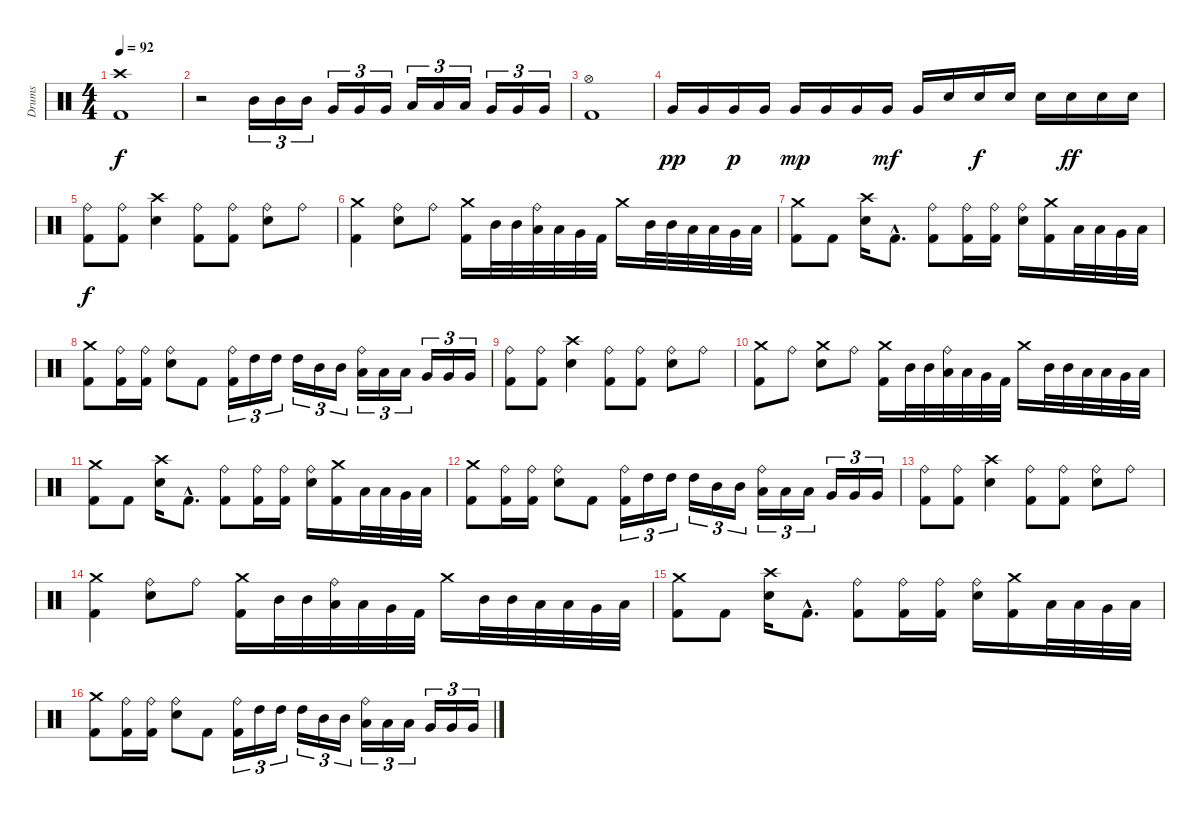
\track ("Drums" "Drums") {instrument percussion}
\staff {score}
\articulation defaults
\ts (4 4)
\tempo 92
\clef neutral
\ks c
("Crash high (hit)" "Kick (hit) 2").1{dy f} |
r.2 "Mid Tom (hit)".16{tu (3 2)} "Mid Tom (hit)".16{tu (3 2)} "Mid Tom (hit)".16{tu (3 2)} "Very Low Tom (hit)".16{tu (3 2)} "Very Low Tom (hit)".16{tu (3 2)} "Very Low Tom (hit)".16{tu (3 2)} "Low Tom (hit)".16{tu (3 2)} "Low Tom (hit)".16{tu (3 2)} "Low Tom (hit)".16{tu (3 2)} "Very Low Tom (hit)".16{tu (3 2)} "Very Low Tom (hit)".16{tu (3 2)} "Very Low Tom (hit)".16{tu (3 2)} |
("Hi-Hat (open)" "Kick (hit) 2").1 |
"Very Low Tom (hit)".16{dy pp} "Very Low Tom (hit)".16 "Very Low Tom (hit)".16{dy p} "Very Low Tom (hit)".16 "Very Low Tom (hit)".16{dy mp} "Very Low Tom (hit)".16 "Very Low Tom (hit)".16 "Very Low Tom (hit)".16{dy mf} "Very Low Tom (hit)".16 "Electric Snare (hit)".16 "Electric Snare (hit)".16{dy f} "Electric Snare (hit)".16 "Electric Snare (hit)".16 "Electric Snare (hit)".16{dy ff} "Electric Snare (hit)".16 "Electric Snare (hit)".16 |
("Ride (bell)" "Kick (hit) 2").8{dy f} ("Ride (bell)" "Kick (hit) 2").8 ("Crash high (hit)" "Electric Snare (hit)").4 ("Ride (bell)" "Kick (hit) 2").8 ("Ride (bell)" "Kick (hit) 2").8 ("Ride (bell)" "Electric Snare (hit)").8 "Ride (bell)".8 |
("Crash medium (hit)" "Kick (hit) 2").4 ("Ride (bell)" "Electric Snare (hit)").8 "Ride (bell)".8 ("Crash medium (hit)" "Kick (hit) 2").16 "Mid Tom (hit)".32 "Mid Tom (hit)".32 ("Ride (bell)" "Low Tom (hit)").32 "Low Tom (hit)".32 "Very Low Tom (hit)".32 "Kick (hit) 2".32 "Crash medium (hit)".16 "Mid Tom (hit)".32 "Mid Tom (hit)".32 "Low Tom (hit)".32 "Low Tom (hit)".32 "Very Low Tom (hit)".32 "Low Floor Tom (hit)".32 |
("Crash medium (hit)" "Kick (hit) 2").8 "Kick (hit) 2".8 ("Crash high (hit)" "Electric Snare (hit)").16 "Kick (hit) 2"{hac}.8{d} ("Ride (bell)" "Kick (hit) 2").8 ("Ride (bell)" "Kick (hit) 2").16 ("Ride (bell)" "Kick (hit) 2").16 ("Ride (bell)" "Electric Snare (hit)").16 ("Crash medium (hit)" "Kick (hit) 2").16 "Low Tom (hit)".32 "Low Tom (hit)".32 "Very Low Tom (hit)".32 "Low Floor Tom (hit)".32 |
("Crash medium (hit)" "Kick (hit) 2").8 ("Ride (bell)" "Kick (hit) 2").16 ("Ride (bell)" "Kick (hit) 2").16 ("Ride (bell)" "Electric Snare (hit)").8 "Kick (hit) 2".8 ("Ride (bell)" "Kick (hit) 2").16{tu (3 2)} "High Tom (hit)".16{tu (3 2)} "High Tom (hit)".16{tu (3 2)} "High Tom (hit)".16{tu (3 2)} "Mid Tom (hit)".16{tu (3 2)} "Mid Tom (hit)".16{tu (3 2)} ("Ride (bell)" "Low Tom (hit)").16{tu (3 2)} "Low Tom (hit)".16{tu (3 2)} "Low Tom (hit)".16{tu (3 2)} "Very Low Tom (hit)".16{tu (3 2)} "Very Low Tom (hit)".16{tu (3 2)} "Very Low Tom (hit)".16{tu (3 2)} |
("Ride (bell)" "Kick (hit) 2").8 ("Ride (bell)" "Kick (hit) 2").8 ("Crash high (hit)" "Electric Snare (hit)").4 ("Ride (bell)" "Kick (hit) 2").8 ("Ride (bell)" "Kick (hit) 2").8 ("Ride (bell)" "Electric Snare (hit)").8 "Ride (bell)".8 |
("Crash medium (hit)" "Kick (hit) 2").8 "Ride (bell)".8 ("Crash medium (hit)" "Electric Snare (hit)").8 "Ride (bell)".8 ("Crash medium (hit)" "Kick (hit) 2").16 "Mid Tom (hit)".32 "Mid Tom (hit)".32 ("Ride (bell)" "Low Tom (hit)").32 "Low Tom (hit)".32 "Very Low Tom (hit)".32 "Kick (hit) 2".32 "Crash medium (hit)".16 "Mid Tom (hit)".32 "Mid Tom (hit)".32 "Low Tom (hit)".32 "Low Tom (hit)".32 "Very Low Tom (hit)".32 "Low Floor Tom (hit)".32 |
("Crash medium (hit)" "Kick (hit) 2").8 "Kick (hit) 2".8 ("Crash high (hit)" "Electric Snare (hit)").16 "Kick (hit) 2"{hac}.8{d} ("Ride (bell)" "Kick (hit) 2").8 ("Ride (bell)" "Kick (hit) 2").16 ("Ride (bell)" "Kick (hit) 2").16 ("Ride (bell)" "Electric Snare (hit)").16 ("Crash medium (hit)" "Kick (hit) 2").16 "Low Tom (hit)".32 "Low Tom (hit)".32 "Very Low Tom (hit)".32 "Low Floor Tom (hit)".32 |
("Crash medium (hit)" "Kick (hit) 2").8 ("Ride (bell)" "Kick (hit) 2").16 ("Ride (bell)" "Kick (hit) 2").16 ("Ride (bell)" "Electric Snare (hit)").8 "Kick (hit) 2".8 ("Ride (bell)" "Kick (hit) 2").16{tu (3 2)} "High Tom (hit)".16{tu (3 2)} "High Tom (hit)".16{tu (3 2)} "High Tom (hit)".16{tu (3 2)} "Mid Tom (hit)".16{tu (3 2)} "Mid Tom (hit)".16{tu (3 2)} ("Ride (bell)" "Low Tom (hit)").16{tu (3 2)} "Low Tom (hit)".16{tu (3 2)} "Low Tom (hit)".16{tu (3 2)} "Very Low Tom (hit)".16{tu (3 2)} "Very Low Tom (hit)".16{tu (3 2)} "Very Low Tom (hit)".16{tu (3 2)} |
("Ride (bell)" "Kick (hit) 2").8 ("Ride (bell)" "Kick (hit) 2").8 ("Crash high (hit)" "Electric Snare (hit)").4 ("Ride (bell)" "Kick (hit) 2").8 ("Ride (bell)" "Kick (hit) 2").8 ("Ride (bell)" "Electric Snare (hit)").8 "Ride (bell)".8 |
("Crash medium (hit)" "Kick (hit) 2").4 ("Ride (bell)" "Electric Snare (hit)").8 "Ride (bell)".8 ("Crash medium (hit)" "Kick (hit) 2").16 "Mid Tom (hit)".32 "Mid Tom (hit)".32 ("Ride (bell)" "Low Tom (hit)").32 "Low Tom (hit)".32 "Very Low Tom (hit)".32 "Kick (hit) 2".32 "Crash medium (hit)".16 "Mid Tom (hit)".32 "Mid Tom (hit)".32 "Low Tom (hit)".32 "Low Tom (hit)".32 "Very Low Tom (hit)".32 "Low Floor Tom (hit)".32 |
("Crash medium (hit)" "Kick (hit) 2").8 "Kick (hit) 2".8 ("Crash high (hit)" "Electric Snare (hit)").16 "Kick (hit) 2"{hac}.8{d} ("Ride (bell)" "Kick (hit) 2").8 ("Ride (bell)" "Kick (hit) 2").16 ("Ride (bell)" "Kick (hit) 2").16 ("Ride (bell)" "Electric Snare (hit)").16 ("Crash medium (hit)" "Kick (hit) 2").16 "Low Tom (hit)".32 "Low Tom (hit)".32 "Very Low Tom (hit)".32 "Low Floor Tom (hit)".32 |
("Crash medium (hit)" "Kick (hit) 2").8 ("Ride (bell)" "Kick (hit) 2").16 ("Ride (bell)" "Kick (hit) 2").16 ("Ride (bell)" "Electric Snare (hit)").8 "Kick (hit) 2".8 ("Ride (bell)" "Kick (hit) 2").16{tu (3 2)} "High Tom (hit)".16{tu (3 2)} "High Tom (hit)".16{tu (3 2)} "High Tom (hit)".16{tu (3 2)} "Mid Tom (hit)".16{tu (3 2)} "Mid Tom (hit)".16{tu (3 2)} ("Ride (bell)" "Low Tom (hit)").16{tu (3 2)} "Low Tom (hit)".16{tu (3 2)} "Low Tom (hit)".16{tu (3 2)} "Very Low Tom (hit)".16{tu (3 2)} "Very Low Tom (hit)".16{tu (3 2)} "Very Low Tom (hit)".16{tu (3 2)}
